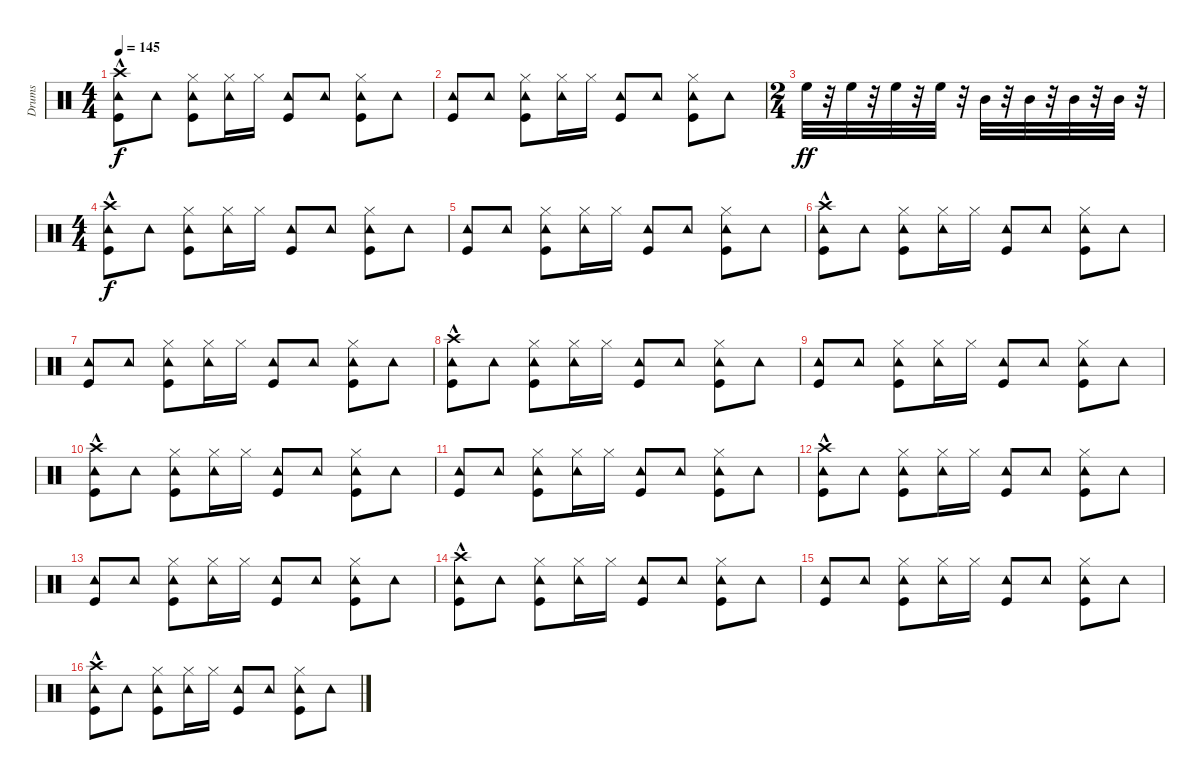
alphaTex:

\track ("Drums" "Drums") {instrument percussion}
\staff {score}
\articulation defaults
\ts (4 4)
\tempo 145
\clef neutral
\ks c
("Tambourine (hit)" "Kick (hit)" "Crash high (hit)"{hac}).8{dy f} "Tambourine (hit)".8 ("Tambourine (hit)" "Hi-Hat (closed)" "Kick (hit)").8 ("Hi-Hat (closed)" "Tambourine (hit)").16 "Hi-Hat (closed)".16 ("Kick (hit)" "Tambourine (hit)").8 "Tambourine (hit)".8 ("Tambourine (hit)" "Hi-Hat (closed)" "Kick (hit)").8 "Tambourine (hit)".8 |
("Tambourine (hit)" "Kick (hit)").8 "Tambourine (hit)".8 ("Tambourine (hit)" "Hi-Hat (closed)" "Kick (hit)").8 ("Tambourine (hit)" "Hi-Hat (closed)").16 "Hi-Hat (closed)".16 ("Tambourine (hit)" "Kick (hit)").8 "Tambourine (hit)".8 ("Kick (hit)" "Hi-Hat (closed)" "Tambourine (hit)").8 "Tambourine (hit)".8 |
\ts (2 4)
"High Floor Tom (hit)".32{dy ff} r.32 "High Floor Tom (hit)".32 r.32 "High Floor Tom (hit)".32 r.32 "High Floor Tom (hit)".32 r.32 "Mid Tom (hit)".32 r.32 "Mid Tom (hit)".32 r.32 "Mid Tom (hit)".32 r.32 "Mid Tom (hit)".32 r.32 |
\ts (4 4)
("Tambourine (hit)" "Kick (hit)" "Crash high (hit)"{hac}).8{dy f} "Tambourine (hit)".8 ("Hi-Hat (closed)" "Kick (hit)" "Tambourine (hit)").8 ("Tambourine (hit)" "Hi-Hat (closed)").16 "Hi-Hat (closed)".16 ("Tambourine (hit)" "Kick (hit)").8 "Tambourine (hit)".8 ("Tambourine (hit)" "Hi-Hat (closed)" "Kick (hit)").8 "Tambourine (hit)".8 |
("Tambourine (hit)" "Kick (hit)").8 "Tambourine (hit)".8 ("Tambourine (hit)" "Hi-Hat (closed)" "Kick (hit)").8 ("Hi-Hat (closed)" "Tambourine (hit)").16 "Hi-Hat (closed)".16 ("Kick (hit)" "Tambourine (hit)").8 "Tambourine (hit)".8 ("Hi-Hat (closed)" "Kick (hit)" "Tambourine (hit)").8 "Tambourine (hit)".8 |
("Crash high (hit)"{hac} "Tambourine (hit)" "Kick (hit)").8 "Tambourine (hit)".8 ("Tambourine (hit)" "Hi-Hat (closed)" "Kick (hit)").8 ("Tambourine (hit)" "Hi-Hat (closed)").16 "Hi-Hat (closed)".16 ("Tambourine (hit)" "Kick (hit)").8 "Tambourine (hit)".8 ("Hi-Hat (closed)" "Kick (hit)" "Tambourine (hit)").8 "Tambourine (hit)".8 |
("Tambourine (hit)" "Kick (hit)").8 "Tambourine (hit)".8 ("Kick (hit)" "Tambourine (hit)" "Hi-Hat (closed)").8 ("Tambourine (hit)" "Hi-Hat (closed)").16 "Hi-Hat (closed)".16 ("Tambourine (hit)" "Kick (hit)").8 "Tambourine (hit)".8 ("Kick (hit)" "Tambourine (hit)" "Hi-Hat (closed)").8 "Tambourine (hit)".8 |
("Tambourine (hit)" "Kick (hit)" "Crash high (hit)"{hac}).8 "Tambourine (hit)".8 ("Tambourine (hit)" "Hi-Hat (closed)" "Kick (hit)").8 ("Hi-Hat (closed)" "Tambourine (hit)").16 "Hi-Hat (closed)".16 ("Kick (hit)" "Tambourine (hit)").8 "Tambourine (hit)".8 ("Tambourine (hit)" "Hi-Hat (closed)" "Kick (hit)").8 "Tambourine (hit)".8 |
("Tambourine (hit)" "Kick (hit)").8 "Tambourine (hit)".8 ("Tambourine (hit)" "Hi-Hat (closed)" "Kick (hit)").8 ("Tambourine (hit)" "Hi-Hat (closed)").16 "Hi-Hat (closed)".16 ("Tambourine (hit)" "Kick (hit)").8 "Tambourine (hit)".8 ("Kick (hit)" "Hi-Hat (closed)" "Tambourine (hit)").8 "Tambourine (hit)".8 |
("Tambourine (hit)" "Kick (hit)" "Crash high (hit)"{hac}).8 "Tambourine (hit)".8 ("Tambourine (hit)" "Hi-Hat (closed)" "Kick (hit)").8 ("Hi-Hat (closed)" "Tambourine (hit)").16 "Hi-Hat (closed)".16 ("Kick (hit)" "Tambourine (hit)").8 "Tambourine (hit)".8 ("Tambourine (hit)" "Hi-Hat (closed)" "Kick (hit)").8 "Tambourine (hit)".8 |
("Tambourine (hit)" "Kick (hit)").8 "Tambourine (hit)".8 ("Tambourine (hit)" "Hi-Hat (closed)" "Kick (hit)").8 ("Tambourine (hit)" "Hi-Hat (closed)").16 "Hi-Hat (closed)".16 ("Tambourine (hit)" "Kick (hit)").8 "Tambourine (hit)".8 ("Kick (hit)" "Hi-Hat (closed)" "Tambourine (hit)").8 "Tambourine (hit)".8 |
("Tambourine (hit)" "Kick (hit)" "Crash high (hit)"{hac}).8 "Tambourine (hit)".8 ("Hi-Hat (closed)" "Kick (hit)" "Tambourine (hit)").8 ("Tambourine (hit)" "Hi-Hat (closed)").16 "Hi-Hat (closed)".16 ("Tambourine (hit)" "Kick (hit)").8 "Tambourine (hit)".8 ("Tambourine (hit)" "Hi-Hat (closed)" "Kick (hit)").8 "Tambourine (hit)".8 |
("Tambourine (hit)" "Kick (hit)").8 "Tambourine (hit)".8 ("Tambourine (hit)" "Hi-Hat (closed)" "Kick (hit)").8 ("Hi-Hat (closed)" "Tambourine (hit)").16 "Hi-Hat (closed)".16 ("Kick (hit)" "Tambourine (hit)").8 "Tambourine (hit)".8 ("Hi-Hat (closed)" "Kick (hit)" "Tambourine (hit)").8 "Tambourine (hit)".8 |
("Crash high (hit)"{hac} "Tambourine (hit)" "Kick (hit)").8 "Tambourine (hit)".8 ("Tambourine (hit)" "Hi-Hat (closed)" "Kick (hit)").8 ("Tambourine (hit)" "Hi-Hat (closed)").16 "Hi-Hat (closed)".16 ("Tambourine (hit)" "Kick (hit)").8 "Tambourine (hit)".8 ("Hi-Hat (closed)" "Kick (hit)" "Tambourine (hit)").8 "Tambourine (hit)".8 |
("Tambourine (hit)" "Kick (hit)").8 "Tambourine (hit)".8 ("Kick (hit)" "Tambourine (hit)" "Hi-Hat (closed)").8 ("Tambourine (hit)" "Hi-Hat (closed)").16 "Hi-Hat (closed)".16 ("Tambourine (hit)" "Kick (hit)").8 "Tambourine (hit)".8 ("Kick (hit)" "Tambourine (hit)" "Hi-Hat (closed)").8 "Tambourine (hit)".8 |
("Tambourine (hit)" "Kick (hit)" "Crash high (hit)"{hac}).8 "Tambourine (hit)".8 ("Tambourine (hit)" "Hi-Hat (closed)" "Kick (hit)").8 ("Hi-Hat (closed)" "Tambourine (hit)").16 "Hi-Hat (closed)".16 ("Kick (hit)" "Tambourine (hit)").8 "Tambourine (hit)".8 ("Tambourine (hit)" "Hi-Hat (closed)" "Kick (hit)").8 "Tambourine (hit)".8
